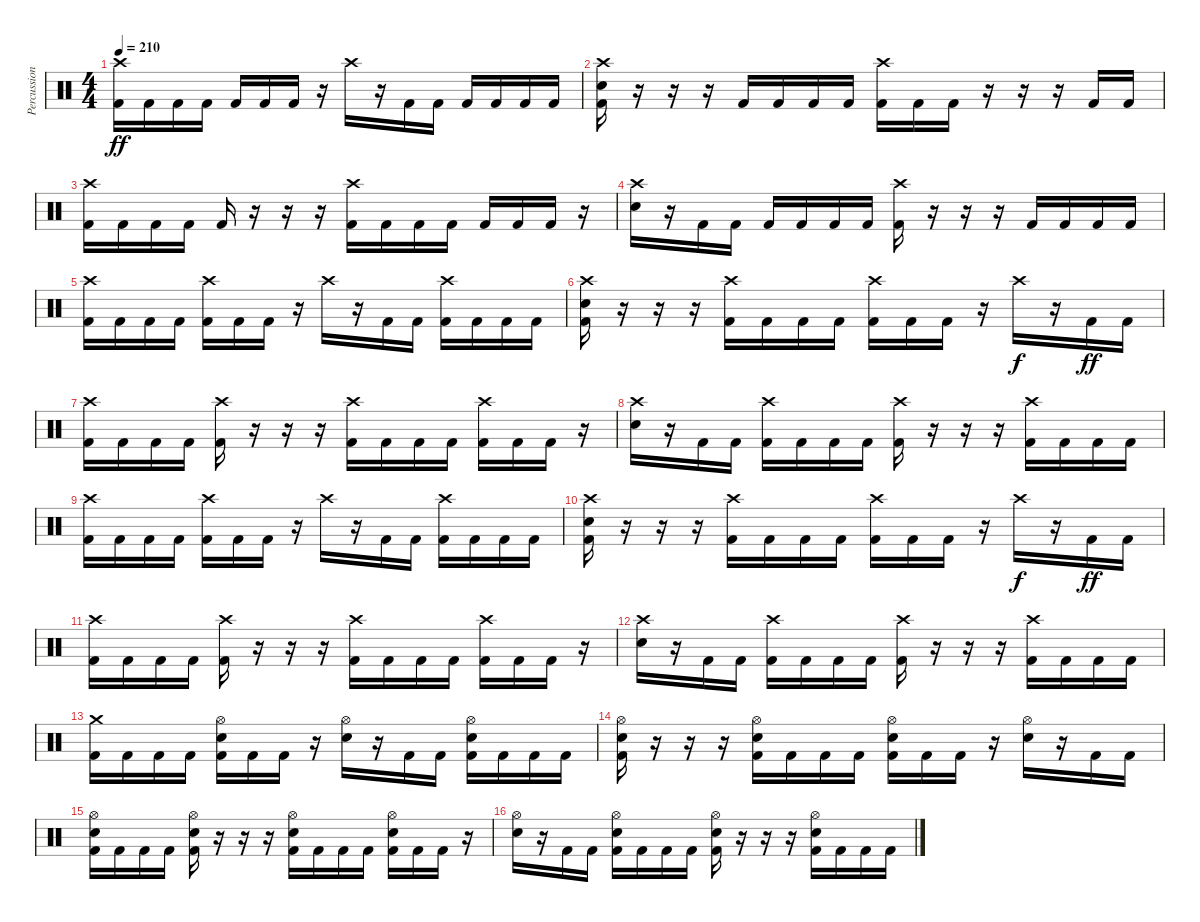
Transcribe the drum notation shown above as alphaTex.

\track ("Percussion" "Percussion") {instrument percussion}
\staff {score}
\articulation defaults
\ts (4 4)
\tempo 210
\clef neutral
\ks c
("Crash high (hit)" "Kick (hit) 2").16{dy ff} "Kick (hit) 2".16 "Kick (hit) 2".16 "Kick (hit) 2".16 "Kick (hit) 2".16 "Kick (hit) 2".16 "Kick (hit) 2".16 r.16 "Crash high (hit)".16 r.16 "Kick (hit) 2".16 "Kick (hit) 2".16 "Kick (hit) 2".16 "Kick (hit) 2".16 "Kick (hit) 2".16 "Kick (hit) 2".16 |
("Crash high (hit)" "Electric Snare (hit)" "Kick (hit) 2").16 r.16 r.16 r.16 "Kick (hit) 2".16 "Kick (hit) 2".16 "Kick (hit) 2".16 "Kick (hit) 2".16 ("Crash high (hit)" "Kick (hit) 2").16 "Kick (hit) 2".16 "Kick (hit) 2".16 r.16 r.16 r.16 "Kick (hit) 2".16 "Kick (hit) 2".16 |
("Crash high (hit)" "Kick (hit) 2").16 "Kick (hit) 2".16 "Kick (hit) 2".16 "Kick (hit) 2".16 "Kick (hit) 2".16 r.16 r.16 r.16 ("Crash high (hit)" "Kick (hit) 2").16 "Kick (hit) 2".16 "Kick (hit) 2".16 "Kick (hit) 2".16 "Kick (hit) 2".16 "Kick (hit) 2".16 "Kick (hit) 2".16 r.16 |
("Crash high (hit)" "Electric Snare (hit)").16 r.16 "Kick (hit) 2".16 "Kick (hit) 2".16 "Kick (hit) 2".16 "Kick (hit) 2".16 "Kick (hit) 2".16 "Kick (hit) 2".16 ("Crash high (hit)" "Kick (hit) 2").16 r.16 r.16 r.16 "Kick (hit) 2".16 "Kick (hit) 2".16 "Kick (hit) 2".16 "Kick (hit) 2".16 |
("Crash high (hit)" "Kick (hit) 2").16 "Kick (hit) 2".16 "Kick (hit) 2".16 "Kick (hit) 2".16 ("Crash high (hit)" "Kick (hit) 2").16 "Kick (hit) 2".16 "Kick (hit) 2".16 r.16 "Crash high (hit)".16 r.16 "Kick (hit) 2".16 "Kick (hit) 2".16 ("Crash high (hit)" "Kick (hit) 2").16 "Kick (hit) 2".16 "Kick (hit) 2".16 "Kick (hit) 2".16 |
("Crash high (hit)" "Electric Snare (hit)" "Kick (hit) 2").16 r.16 r.16 r.16 ("Crash high (hit)" "Kick (hit) 2").16 "Kick (hit) 2".16 "Kick (hit) 2".16 "Kick (hit) 2".16 ("Crash high (hit)" "Kick (hit) 2").16 "Kick (hit) 2".16 "Kick (hit) 2".16 r.16 "Crash high (hit)".16{dy f} r.16 "Kick (hit) 2".16{dy ff} "Kick (hit) 2".16 |
("Crash high (hit)" "Kick (hit) 2").16 "Kick (hit) 2".16 "Kick (hit) 2".16 "Kick (hit) 2".16 ("Crash high (hit)" "Kick (hit) 2").16 r.16 r.16 r.16 ("Crash high (hit)" "Kick (hit) 2").16 "Kick (hit) 2".16 "Kick (hit) 2".16 "Kick (hit) 2".16 ("Crash high (hit)" "Kick (hit) 2").16 "Kick (hit) 2".16 "Kick (hit) 2".16 r.16 |
("Crash high (hit)" "Electric Snare (hit)").16 r.16 "Kick (hit) 2".16 "Kick (hit) 2".16 ("Crash high (hit)" "Kick (hit) 2").16 "Kick (hit) 2".16 "Kick (hit) 2".16 "Kick (hit) 2".16 ("Crash high (hit)" "Kick (hit) 2").16 r.16 r.16 r.16 ("Crash high (hit)" "Kick (hit) 2").16 "Kick (hit) 2".16 "Kick (hit) 2".16 "Kick (hit) 2".16 |
("Crash high (hit)" "Kick (hit) 2").16 "Kick (hit) 2".16 "Kick (hit) 2".16 "Kick (hit) 2".16 ("Crash high (hit)" "Kick (hit) 2").16 "Kick (hit) 2".16 "Kick (hit) 2".16 r.16 "Crash high (hit)".16 r.16 "Kick (hit) 2".16 "Kick (hit) 2".16 ("Crash high (hit)" "Kick (hit) 2").16 "Kick (hit) 2".16 "Kick (hit) 2".16 "Kick (hit) 2".16 |
("Crash high (hit)" "Electric Snare (hit)" "Kick (hit) 2").16 r.16 r.16 r.16 ("Crash high (hit)" "Kick (hit) 2").16 "Kick (hit) 2".16 "Kick (hit) 2".16 "Kick (hit) 2".16 ("Crash high (hit)" "Kick (hit) 2").16 "Kick (hit) 2".16 "Kick (hit) 2".16 r.16 "Crash high (hit)".16{dy f} r.16 "Kick (hit) 2".16{dy ff} "Kick (hit) 2".16 |
("Crash high (hit)" "Kick (hit) 2").16 "Kick (hit) 2".16 "Kick (hit) 2".16 "Kick (hit) 2".16 ("Crash high (hit)" "Kick (hit) 2").16 r.16 r.16 r.16 ("Crash high (hit)" "Kick (hit) 2").16 "Kick (hit) 2".16 "Kick (hit) 2".16 "Kick (hit) 2".16 ("Crash high (hit)" "Kick (hit) 2").16 "Kick (hit) 2".16 "Kick (hit) 2".16 r.16 |
("Crash high (hit)" "Electric Snare (hit)").16 r.16 "Kick (hit) 2".16 "Kick (hit) 2".16 ("Crash high (hit)" "Kick (hit) 2").16 "Kick (hit) 2".16 "Kick (hit) 2".16 "Kick (hit) 2".16 ("Crash high (hit)" "Kick (hit) 2").16 r.16 r.16 r.16 ("Crash high (hit)" "Kick (hit) 2").16 "Kick (hit) 2".16 "Kick (hit) 2".16 "Kick (hit) 2".16 |
("Crash medium (hit)" "Kick (hit) 2").16 "Kick (hit) 2".16 "Kick (hit) 2".16 "Kick (hit) 2".16 ("Hi-Hat (open)" "Electric Snare (hit)" "Kick (hit) 2").16 "Kick (hit) 2".16 "Kick (hit) 2".16 r.16 ("Hi-Hat (open)" "Electric Snare (hit)").16 r.16 "Kick (hit) 2".16 "Kick (hit) 2".16 ("Hi-Hat (open)" "Electric Snare (hit)" "Kick (hit) 2").16 "Kick (hit) 2".16 "Kick (hit) 2".16 "Kick (hit) 2".16 |
("Hi-Hat (open)" "Electric Snare (hit)" "Kick (hit) 2").16 r.16 r.16 r.16 ("Hi-Hat (open)" "Electric Snare (hit)" "Kick (hit) 2").16 "Kick (hit) 2".16 "Kick (hit) 2".16 "Kick (hit) 2".16 ("Hi-Hat (open)" "Electric Snare (hit)" "Kick (hit) 2").16 "Kick (hit) 2".16 "Kick (hit) 2".16 r.16 ("Hi-Hat (open)" "Electric Snare (hit)").16 r.16 "Kick (hit) 2".16 "Kick (hit) 2".16 |
("Hi-Hat (open)" "Electric Snare (hit)" "Kick (hit) 2").16 "Kick (hit) 2".16 "Kick (hit) 2".16 "Kick (hit) 2".16 ("Hi-Hat (open)" "Electric Snare (hit)" "Kick (hit) 2").16 r.16 r.16 r.16 ("Hi-Hat (open)" "Electric Snare (hit)" "Kick (hit) 2").16 "Kick (hit) 2".16 "Kick (hit) 2".16 "Kick (hit) 2".16 ("Hi-Hat (open)" "Electric Snare (hit)" "Kick (hit) 2").16 "Kick (hit) 2".16 "Kick (hit) 2".16 r.16 |
("Hi-Hat (open)" "Electric Snare (hit)").16 r.16 "Kick (hit) 2".16 "Kick (hit) 2".16 ("Hi-Hat (open)" "Electric Snare (hit)" "Kick (hit) 2").16 "Kick (hit) 2".16 "Kick (hit) 2".16 "Kick (hit) 2".16 ("Hi-Hat (open)" "Electric Snare (hit)" "Kick (hit) 2").16 r.16 r.16 r.16 ("Hi-Hat (open)" "Electric Snare (hit)" "Kick (hit) 2").16 "Kick (hit) 2".16 "Kick (hit) 2".16 "Kick (hit) 2".16
